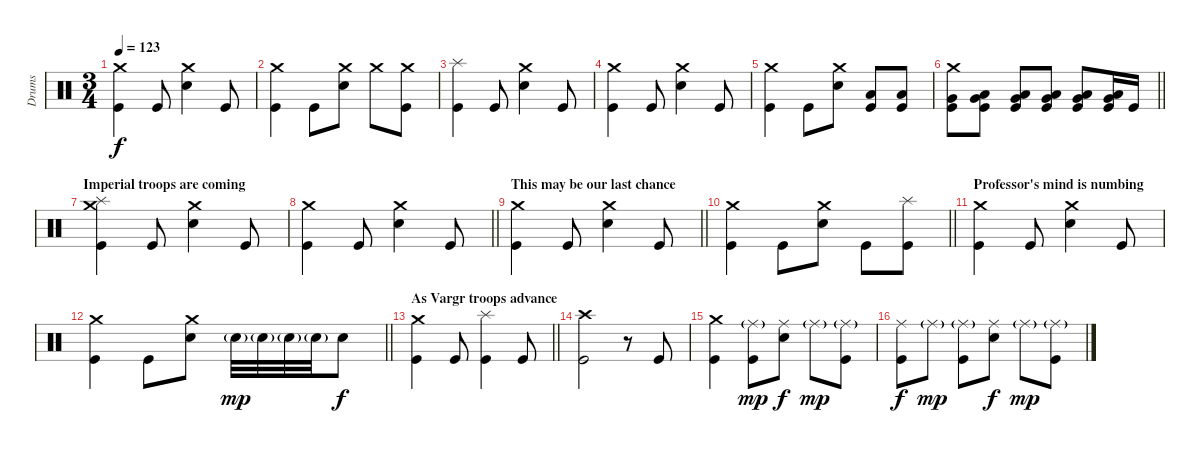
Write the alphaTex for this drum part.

\track ("Drums" "Drums") {instrument percussion}
\staff {score}
\articulation defaults
\ts (3 4)
\tempo 123
\clef neutral
\ks c
("Crash medium (hit)" "Kick (hit)").4{dy f} "Kick (hit)".8 ("Crash medium (hit)" "Snare (hit) 2").4 "Kick (hit)".8 |
("Crash medium (hit)" "Kick (hit)").4 "Kick (hit)".8 ("Crash medium (hit)" "Snare (hit) 2").8 "Crash medium (hit)".8 ("Crash medium (hit)" "Kick (hit)").8 |
("Splash (hit)" "Kick (hit)").4 "Kick (hit)".8 ("Crash medium (hit)" "Snare (hit) 2").4 "Kick (hit)".8 |
("Crash medium (hit)" "Kick (hit)").4 "Kick (hit)".8 ("Crash medium (hit)" "Snare (hit) 2").4 "Kick (hit)".8 |
("Crash medium (hit)" "Kick (hit)").4 "Kick (hit)".8 ("Crash medium (hit)" "Snare (hit) 2").8 ("Low Tom (hit)" "Kick (hit)").8 ("Low Tom (hit)" "Kick (hit)").8 |
\barLineRight lightlight
("Crash medium (hit)" "Very Low Tom (hit)" "Kick (hit)").8 ("Very Low Tom (hit)" "Low Tom (hit)" "Kick (hit)").8 ("Very Low Tom (hit)" "Low Tom (hit)" "Kick (hit)").8 ("Low Floor Tom (hit)" "Very Low Tom (hit)" "Kick (hit)").8 ("Low Floor Tom (hit)" "Very Low Tom (hit)" "Kick (hit)").8 ("Low Floor Tom (hit)" "Very Low Tom (hit)" "Kick (hit)").16 "Kick (hit)".16 |
\section ("" "Imperial troops are coming")
("Crash medium (hit)" "Splash (hit)" "Kick (hit)").4 "Kick (hit)".8 ("Crash medium (hit)" "Snare (hit) 2").4 "Kick (hit)".8 |
\barLineRight lightlight
("Crash medium (hit)" "Kick (hit)").4 "Kick (hit)".8 ("Crash medium (hit)" "Snare (hit) 2").4 "Kick (hit)".8 |
\section ("" "This may be our last chance")
\barLineRight lightlight
("Crash medium (hit)" "Kick (hit)").4 "Kick (hit)".8 ("Crash medium (hit)" "Snare (hit) 2").4 "Kick (hit)".8 |
\barLineRight lightlight
("Crash medium (hit)" "Kick (hit)").4 "Kick (hit)".8 ("Crash medium (hit)" "Snare (hit) 2").8 "Kick (hit)".8 ("Splash (hit)" "Kick (hit)").8 |
\section ("" "Professor's mind is numbing")
("Crash medium (hit)" "Kick (hit)").4 "Kick (hit)".8 ("Crash medium (hit)" "Snare (hit) 2").4 "Kick (hit)".8 |
\barLineRight lightlight
("Crash medium (hit)" "Kick (hit)").4 "Kick (hit)".8 ("Crash medium (hit)" "Snare (hit) 2").8 "Snare (hit) 2"{g}.32{dy mp} "Snare (hit) 2"{g}.32 "Snare (hit) 2"{g}.32 "Snare (hit) 2"{g}.32 "Snare (hit) 2".8{dy f} |
\section ("" "As Vargr troops advance")
\barLineRight lightlight
("Crash medium (hit)" "Kick (hit)").4 "Kick (hit)".8 ("Splash (hit)" "Kick (hit)").4 "Kick (hit)".8 |
("Crash high (hit)" "Kick (hit)").2 r.8 "Kick (hit)".8 |
("Crash medium (hit)" "Kick (hit)").4 ("Ride (middle)"{g} "Kick (hit)").8{dy mp} ("Ride (middle)" "Snare (hit) 2").8{dy f} "Ride (middle)"{g}.8{dy mp} ("Ride (middle)"{g} "Kick (hit)").8 |
("Ride (middle)" "Kick (hit)").8{dy f} "Ride (middle)"{g}.8{dy mp} ("Ride (middle)"{g} "Kick (hit)").8 ("Ride (middle)" "Snare (hit) 2").8{dy f} "Ride (middle)"{g}.8{dy mp} ("Ride (middle)"{g} "Kick (hit)").8
